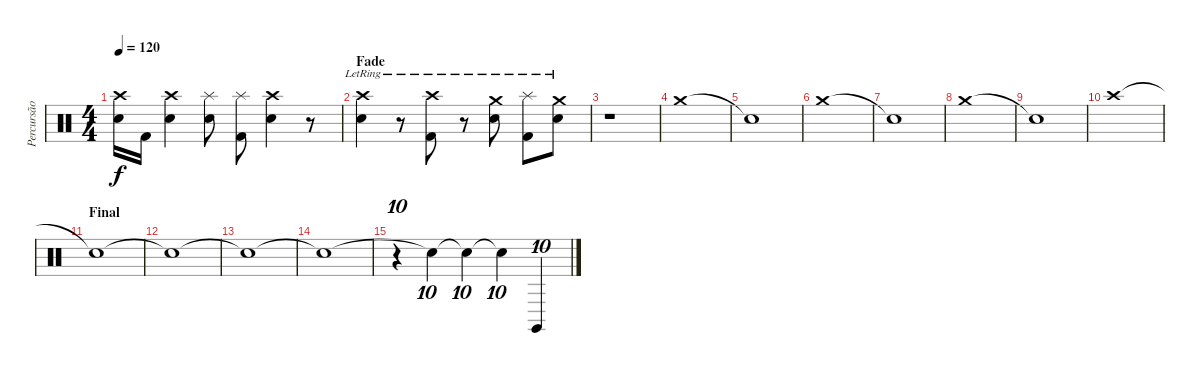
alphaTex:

\track ("Percursão" "Percursão") {instrument percussion}
\staff {score}
\articulation defaults
\ts (4 4)
\tempo 120
\clef neutral
\ks c
("Crash high (hit)" "Snare (hit) 2").16{dy f} "Kick (hit) 2".16 ("Crash high (hit)" "Snare (hit) 2").4 ("Splash (hit)" "Snare (hit) 2").8 ("Splash (hit)" "Kick (hit) 2").8 ("Crash high (hit)" "Snare (hit) 2").4 r.8 |
\section ("" "Fade")
("Crash high (hit)"{lr} "Snare (hit) 2").4 r.8 ("Crash high (hit)"{lr} "Kick (hit) 2").8 r.8 ("Crash medium (hit)"{lr} "Snare (hit) 2").8 ("Splash (hit)"{lr} "Kick (hit) 2").8 ("Crash medium (hit)"{lr} "Snare (hit) 2").8 |
r.1 |
"Crash medium (hit)".1 |
"Snare (hit)"{t}.1 |
"Crash medium (hit)".1 |
"Snare (hit)"{t}.1 |
"Crash medium (hit)".1 |
"Snare (hit)"{t}.1 |
"Crash high (hit)".1 |
\section ("" "Final")
"Snare (hit)"{t}.1 |
"Snare (hit)"{t}.1 |
"Snare (hit)"{t}.1 |
"Snare (hit)"{t}.1 |
r.4{tu (10 8)} "Snare (hit)"{t}.4{tu (10 8)} "Snare (hit)"{t}.4{tu (10 8)} "Snare (hit)"{t}.4{tu (10 8)} "Claves (hit)".4{tu (10 8)}
